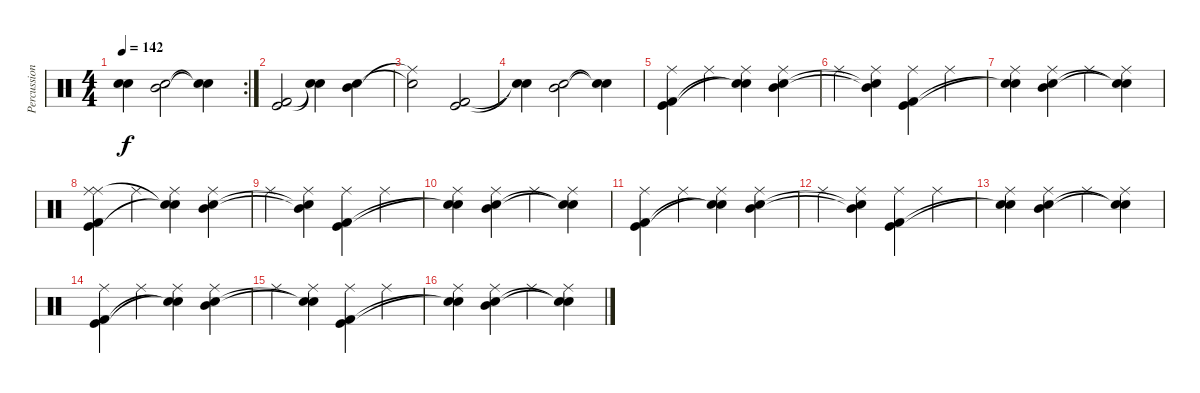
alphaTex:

\track ("Percussion" "Percussion") {instrument percussion}
\staff {score}
\articulation defaults
\rc 2
\ts (4 4)
\tempo 142
\clef neutral
\ks c
("Snare (hit)"{t} "Snare (hit)"{t}).4{dy f} ("Mid Tom (hit)" "Electric Snare (hit)").2 ("Snare (hit)"{t} "Snare (hit)"{t}).4 |
("Kick (hit)" "Kick (hit) 2").2 ("Snare (hit)"{t} "Snare (hit)"{t}).4 ("Mid Tom (hit)" "Electric Snare (hit)").4 |
("Ride (middle)"{t} "Electric Snare (hit)"{t}).2 ("Kick (hit)" "Kick (hit) 2").2 |
("Snare (hit)"{t} "Snare (hit)"{t}).4 ("Mid Tom (hit)" "Electric Snare (hit)").2 ("Snare (hit)"{t} "Snare (hit)"{t}).4 |
("Ride (middle)" "Kick (hit)" "Kick (hit) 2").4 "Ride (middle)".4 ("Ride (middle)" "Snare (hit)"{t} "Snare (hit)"{t}).4 ("Ride (middle)" "Mid Tom (hit)" "Electric Snare (hit)").4 |
"Ride (middle)".4 ("Ride (middle)" "Mid Tom (hit)"{t} "Electric Snare (hit)"{t}).4 ("Ride (middle)" "Kick (hit)" "Kick (hit) 2").4 "Ride (middle)".4 |
("Ride (middle)" "Snare (hit)"{t} "Snare (hit)"{t}).4 ("Ride (middle)" "Mid Tom (hit)" "Electric Snare (hit)").4 "Ride (middle)".4 ("Ride (middle)" "Snare (hit)"{t} "Snare (hit)"{t}).4 |
("Ride (middle)" "Ride (middle)" "Kick (hit)" "Kick (hit) 2").4 "Ride (middle)".4 ("Ride (middle)" "Snare (hit)"{t} "Snare (hit)"{t}).4 ("Ride (middle)" "Mid Tom (hit)" "Electric Snare (hit)").4 |
"Ride (middle)".4 ("Ride (middle)" "Mid Tom (hit)"{t} "Electric Snare (hit)"{t}).4 ("Ride (middle)" "Kick (hit)" "Kick (hit) 2").4 "Ride (middle)".4 |
("Ride (middle)" "Snare (hit)"{t} "Snare (hit)"{t}).4 ("Ride (middle)" "Mid Tom (hit)" "Electric Snare (hit)").4 "Ride (middle)".4 ("Ride (middle)" "Snare (hit)"{t} "Snare (hit)"{t}).4 |
("Ride (middle)" "Kick (hit)" "Kick (hit) 2").4 "Ride (middle)".4 ("Ride (middle)" "Snare (hit)"{t} "Snare (hit)"{t}).4 ("Ride (middle)" "Mid Tom (hit)" "Electric Snare (hit)").4 |
"Ride (middle)".4 ("Ride (middle)" "Mid Tom (hit)"{t} "Electric Snare (hit)"{t}).4 ("Ride (middle)" "Kick (hit)" "Kick (hit) 2").4 "Ride (middle)".4 |
("Ride (middle)" "Snare (hit)"{t} "Snare (hit)"{t}).4 ("Ride (middle)" "Mid Tom (hit)" "Electric Snare (hit)").4 "Ride (middle)".4 ("Ride (middle)" "Snare (hit)"{t} "Snare (hit)"{t}).4 |
("Ride (middle)" "Kick (hit)" "Kick (hit) 2").4 "Ride (middle)".4 ("Ride (middle)" "Snare (hit)"{t} "Snare (hit)"{t}).4 ("Ride (middle)" "Mid Tom (hit)" "Electric Snare (hit)").4 |
"Ride (middle)".4 ("Ride (middle)" "Snare (hit)"{t} "Snare (hit)"{t}).4 ("Ride (middle)" "Kick (hit)" "Kick (hit) 2").4 "Ride (middle)".4 |
("Ride (middle)" "Snare (hit)"{t} "Snare (hit)"{t}).4 ("Ride (middle)" "Mid Tom (hit)" "Electric Snare (hit)").4 "Ride (middle)".4 ("Ride (middle)" "Snare (hit)"{t} "Snare (hit)"{t}).4
